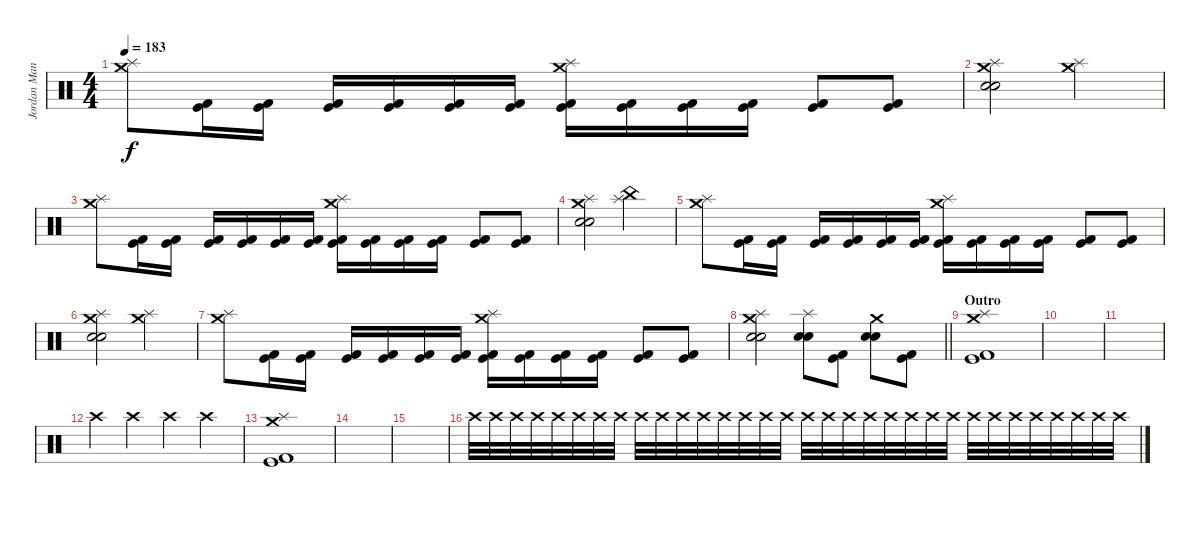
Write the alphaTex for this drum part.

\track ("Jordan Mancino" "Jordan Man") {instrument percussion}
\staff {score}
\articulation defaults
\ts (4 4)
\tempo 183
\clef neutral
\ks c
("Crash medium (hit)" "Splash (hit)").8{dy f} ("Kick (hit)" "Kick (hit) 2").16 ("Kick (hit)" "Kick (hit) 2").16 ("Kick (hit)" "Kick (hit) 2").16 ("Kick (hit)" "Kick (hit) 2").16 ("Kick (hit)" "Kick (hit) 2").16 ("Kick (hit)" "Kick (hit) 2").16 ("Crash medium (hit)" "Splash (hit)" "Kick (hit)" "Kick (hit) 2").16 ("Kick (hit)" "Kick (hit) 2").16 ("Kick (hit)" "Kick (hit) 2").16 ("Kick (hit)" "Kick (hit) 2").16 ("Kick (hit)" "Kick (hit) 2").8 ("Kick (hit)" "Kick (hit) 2").8 |
("Crash medium (hit)" "Splash (hit)" "Electric Snare (hit)" "Snare (hit) 2").2 ("Crash medium (hit)" "Splash (hit)").2 |
("Crash medium (hit)" "Splash (hit)").8 ("Kick (hit)" "Kick (hit) 2").16 ("Kick (hit)" "Kick (hit) 2").16 ("Kick (hit)" "Kick (hit) 2").16 ("Kick (hit)" "Kick (hit) 2").16 ("Kick (hit)" "Kick (hit) 2").16 ("Kick (hit)" "Kick (hit) 2").16 ("Crash medium (hit)" "Splash (hit)" "Kick (hit)" "Kick (hit) 2").16 ("Kick (hit)" "Kick (hit) 2").16 ("Kick (hit)" "Kick (hit) 2").16 ("Kick (hit)" "Kick (hit) 2").16 ("Kick (hit)" "Kick (hit) 2").8 ("Kick (hit)" "Kick (hit) 2").8 |
("Crash medium (hit)" "Splash (hit)" "Electric Snare (hit)" "Snare (hit) 2").2 ("China (hit)" "Splash (hit)").2 |
("Crash medium (hit)" "Splash (hit)").8 ("Kick (hit)" "Kick (hit) 2").16 ("Kick (hit)" "Kick (hit) 2").16 ("Kick (hit)" "Kick (hit) 2").16 ("Kick (hit)" "Kick (hit) 2").16 ("Kick (hit)" "Kick (hit) 2").16 ("Kick (hit)" "Kick (hit) 2").16 ("Crash medium (hit)" "Splash (hit)" "Kick (hit)" "Kick (hit) 2").16 ("Kick (hit)" "Kick (hit) 2").16 ("Kick (hit)" "Kick (hit) 2").16 ("Kick (hit)" "Kick (hit) 2").16 ("Kick (hit)" "Kick (hit) 2").8 ("Kick (hit)" "Kick (hit) 2").8 |
("Crash medium (hit)" "Splash (hit)" "Electric Snare (hit)" "Snare (hit) 2").2 ("Crash medium (hit)" "Splash (hit)").2 |
("Crash medium (hit)" "Splash (hit)").8 ("Kick (hit)" "Kick (hit) 2").16 ("Kick (hit)" "Kick (hit) 2").16 ("Kick (hit)" "Kick (hit) 2").16 ("Kick (hit)" "Kick (hit) 2").16 ("Kick (hit)" "Kick (hit) 2").16 ("Kick (hit)" "Kick (hit) 2").16 ("Crash medium (hit)" "Splash (hit)" "Kick (hit)" "Kick (hit) 2").16 ("Kick (hit)" "Kick (hit) 2").16 ("Kick (hit)" "Kick (hit) 2").16 ("Kick (hit)" "Kick (hit) 2").16 ("Kick (hit)" "Kick (hit) 2").8 ("Kick (hit)" "Kick (hit) 2").8 |
\barLineRight lightlight
("Crash medium (hit)" "Splash (hit)" "Electric Snare (hit)" "Snare (hit) 2").2 ("Splash (hit)" "Electric Snare (hit)" "Snare (hit) 2").8 ("Kick (hit)" "Kick (hit) 2").8 ("Crash medium (hit)" "Electric Snare (hit)" "Snare (hit) 2").8 ("Kick (hit)" "Kick (hit) 2").8 |
\section ("" "Outro")
("Splash (hit)" "Crash medium (hit)" "Kick (hit)" "Kick (hit) 2").1 |
|
|
"Crash high (hit)".4{volume 13} "Crash high (hit)".4 "Crash high (hit)".4 "Crash high (hit)".4 |
("Splash (hit)" "Crash medium (hit)" "Kick (hit)" "Kick (hit) 2").1 |
|
|
"Crash high (hit)".32{volume 13} "Crash high (hit)".32 "Crash high (hit)".32 "Crash high (hit)".32 "Crash high (hit)".32 "Crash high (hit)".32 "Crash high (hit)".32 "Crash high (hit)".32 "Crash high (hit)".32 "Crash high (hit)".32 "Crash high (hit)".32 "Crash high (hit)".32 "Crash high (hit)".32 "Crash high (hit)".32 "Crash high (hit)".32 "Crash high (hit)".32 "Crash high (hit)".32 "Crash high (hit)".32 "Crash high (hit)".32 "Crash high (hit)".32 "Crash high (hit)".32 "Crash high (hit)".32 "Crash high (hit)".32 "Crash high (hit)".32 "Crash high (hit)".32 "Crash high (hit)".32 "Crash high (hit)".32 "Crash high (hit)".32 "Crash high (hit)".32 "Crash high (hit)".32 "Crash high (hit)".32 "Crash high (hit)".32
